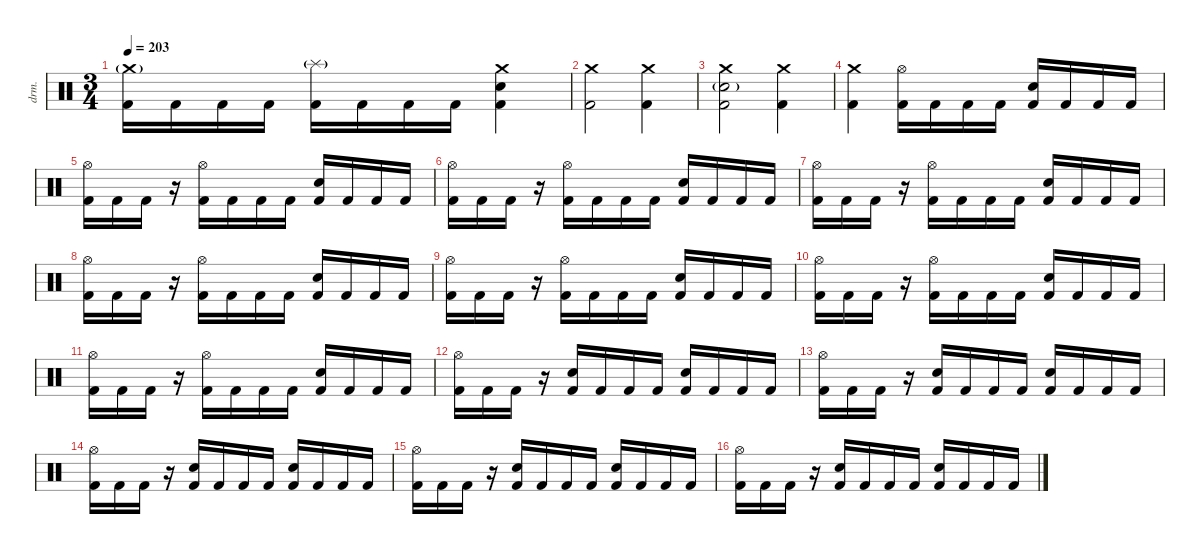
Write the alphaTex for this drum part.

\defaultSystemsLayout 4
\hideDynamics
\bracketExtendMode nobrackets
\otherSystemsTrackNameOrientation horizontal
\track ("Drums" "drm.") {instrument percussion}
\staff {score}
\articulation defaults
\ts (3 4)
\tempo 203
\clef neutral
\ks c
("Crash medium (hit)"{g} "Kick (hit) 2").16{dy f beam Down} "Kick (hit) 2".16{beam Down} "Kick (hit) 2".16{beam Down} "Kick (hit) 2".16{beam Down} ("Splash (hit)"{g} "Kick (hit) 2").16{beam Down} "Kick (hit) 2".16{beam Down} "Kick (hit) 2".16{beam Down} "Kick (hit) 2".16{beam Down} ("Crash medium (hit)" "Snare (hit) 2" "Kick (hit) 2").4{beam Down} |
("Crash medium (hit)" "Kick (hit) 2").2{beam Down} ("Crash medium (hit)" "Kick (hit) 2").4{beam Down} |
("Crash medium (hit)" "Snare (hit) 2"{g} "Kick (hit) 2").2{beam Down} ("Crash medium (hit)" "Kick (hit) 2").4{beam Down} |
("Crash medium (hit)" "Kick (hit) 2").4{beam Down} ("Hi-Hat (open)" "Kick (hit) 2").16{beam Down} "Kick (hit) 2".16{beam Down} "Kick (hit) 2".16{beam Down} "Kick (hit) 2".16{beam Down} ("Snare (hit) 2" "Kick (hit) 2").16{beam Up} "Kick (hit) 2".16{beam Up} "Kick (hit) 2".16{beam Up} "Kick (hit) 2".16{beam Up} |
("Hi-Hat (open)" "Kick (hit) 2").16{beam Down} "Kick (hit) 2".16{beam Down} "Kick (hit) 2".16{beam Down} r.16{beam Down} ("Hi-Hat (open)" "Kick (hit) 2").16{beam Down} "Kick (hit) 2".16{beam Down} "Kick (hit) 2".16{beam Down} "Kick (hit) 2".16{beam Down} ("Snare (hit) 2" "Kick (hit) 2").16{beam Up} "Kick (hit) 2".16{beam Up} "Kick (hit) 2".16{beam Up} "Kick (hit) 2".16{beam Up} |
("Hi-Hat (open)" "Kick (hit) 2").16{beam Down} "Kick (hit) 2".16{beam Down} "Kick (hit) 2".16{beam Down} r.16{beam Down} ("Hi-Hat (open)" "Kick (hit) 2").16{beam Down} "Kick (hit) 2".16{beam Down} "Kick (hit) 2".16{beam Down} "Kick (hit) 2".16{beam Down} ("Snare (hit) 2" "Kick (hit) 2").16{beam Up} "Kick (hit) 2".16{beam Up} "Kick (hit) 2".16{beam Up} "Kick (hit) 2".16{beam Up} |
("Hi-Hat (open)" "Kick (hit) 2").16{beam Down} "Kick (hit) 2".16{beam Down} "Kick (hit) 2".16{beam Down} r.16{beam Down} ("Hi-Hat (open)" "Kick (hit) 2").16{beam Down} "Kick (hit) 2".16{beam Down} "Kick (hit) 2".16{beam Down} "Kick (hit) 2".16{beam Down} ("Snare (hit) 2" "Kick (hit) 2").16{beam Up} "Kick (hit) 2".16{beam Up} "Kick (hit) 2".16{beam Up} "Kick (hit) 2".16{beam Up} |
("Hi-Hat (open)" "Kick (hit) 2").16{beam Down} "Kick (hit) 2".16{beam Down} "Kick (hit) 2".16{beam Down} r.16{beam Down} ("Hi-Hat (open)" "Kick (hit) 2").16{beam Down} "Kick (hit) 2".16{beam Down} "Kick (hit) 2".16{beam Down} "Kick (hit) 2".16{beam Down} ("Snare (hit) 2" "Kick (hit) 2").16{beam Up} "Kick (hit) 2".16{beam Up} "Kick (hit) 2".16{beam Up} "Kick (hit) 2".16{beam Up} |
("Hi-Hat (open)" "Kick (hit) 2").16{beam Down} "Kick (hit) 2".16{beam Down} "Kick (hit) 2".16{beam Down} r.16{beam Down} ("Hi-Hat (open)" "Kick (hit) 2").16{beam Down} "Kick (hit) 2".16{beam Down} "Kick (hit) 2".16{beam Down} "Kick (hit) 2".16{beam Down} ("Snare (hit) 2" "Kick (hit) 2").16{beam Up} "Kick (hit) 2".16{beam Up} "Kick (hit) 2".16{beam Up} "Kick (hit) 2".16{beam Up} |
("Hi-Hat (open)" "Kick (hit) 2").16{beam Down} "Kick (hit) 2".16{beam Down} "Kick (hit) 2".16{beam Down} r.16{beam Down} ("Hi-Hat (open)" "Kick (hit) 2").16{beam Down} "Kick (hit) 2".16{beam Down} "Kick (hit) 2".16{beam Down} "Kick (hit) 2".16{beam Down} ("Snare (hit) 2" "Kick (hit) 2").16{beam Up} "Kick (hit) 2".16{beam Up} "Kick (hit) 2".16{beam Up} "Kick (hit) 2".16{beam Up} |
("Hi-Hat (open)" "Kick (hit) 2").16{beam Down} "Kick (hit) 2".16{beam Down} "Kick (hit) 2".16{beam Down} r.16{beam Down} ("Hi-Hat (open)" "Kick (hit) 2").16{beam Down} "Kick (hit) 2".16{beam Down} "Kick (hit) 2".16{beam Down} "Kick (hit) 2".16{beam Down} ("Snare (hit) 2" "Kick (hit) 2").16{beam Up} "Kick (hit) 2".16{beam Up} "Kick (hit) 2".16{beam Up} "Kick (hit) 2".16{beam Up} |
("Hi-Hat (open)" "Kick (hit) 2").16{beam Down} "Kick (hit) 2".16{beam Down} "Kick (hit) 2".16{beam Down} r.16{beam Down} ("Snare (hit) 2" "Kick (hit) 2").16{beam Up} "Kick (hit) 2".16{beam Up} "Kick (hit) 2".16{beam Up} "Kick (hit) 2".16{beam Up} ("Snare (hit) 2" "Kick (hit) 2").16{beam Up} "Kick (hit) 2".16{beam Up} "Kick (hit) 2".16{beam Up} "Kick (hit) 2".16{beam Up} |
("Hi-Hat (open)" "Kick (hit) 2").16{beam Down} "Kick (hit) 2".16{beam Down} "Kick (hit) 2".16{beam Down} r.16{beam Down} ("Snare (hit) 2" "Kick (hit) 2").16{beam Up} "Kick (hit) 2".16{beam Up} "Kick (hit) 2".16{beam Up} "Kick (hit) 2".16{beam Up} ("Snare (hit) 2" "Kick (hit) 2").16{beam Up} "Kick (hit) 2".16{beam Up} "Kick (hit) 2".16{beam Up} "Kick (hit) 2".16{beam Up} |
("Hi-Hat (open)" "Kick (hit) 2").16{beam Down} "Kick (hit) 2".16{beam Down} "Kick (hit) 2".16{beam Down} r.16{beam Down} ("Snare (hit) 2" "Kick (hit) 2").16{beam Up} "Kick (hit) 2".16{beam Up} "Kick (hit) 2".16{beam Up} "Kick (hit) 2".16{beam Up} ("Snare (hit) 2" "Kick (hit) 2").16{beam Up} "Kick (hit) 2".16{beam Up} "Kick (hit) 2".16{beam Up} "Kick (hit) 2".16{beam Up} |
("Hi-Hat (open)" "Kick (hit) 2").16{beam Down} "Kick (hit) 2".16{beam Down} "Kick (hit) 2".16{beam Down} r.16{beam Down} ("Snare (hit) 2" "Kick (hit) 2").16{beam Up} "Kick (hit) 2".16{beam Up} "Kick (hit) 2".16{beam Up} "Kick (hit) 2".16{beam Up} ("Snare (hit) 2" "Kick (hit) 2").16{beam Up} "Kick (hit) 2".16{beam Up} "Kick (hit) 2".16{beam Up} "Kick (hit) 2".16{beam Up} |
("Hi-Hat (open)" "Kick (hit) 2").16{beam Down} "Kick (hit) 2".16{beam Down} "Kick (hit) 2".16{beam Down} r.16{beam Down} ("Snare (hit) 2" "Kick (hit) 2").16{beam Up} "Kick (hit) 2".16{beam Up} "Kick (hit) 2".16{beam Up} "Kick (hit) 2".16{beam Up} ("Snare (hit) 2" "Kick (hit) 2").16{beam Up} "Kick (hit) 2".16{beam Up} "Kick (hit) 2".16{beam Up} "Kick (hit) 2".16{beam Up}
